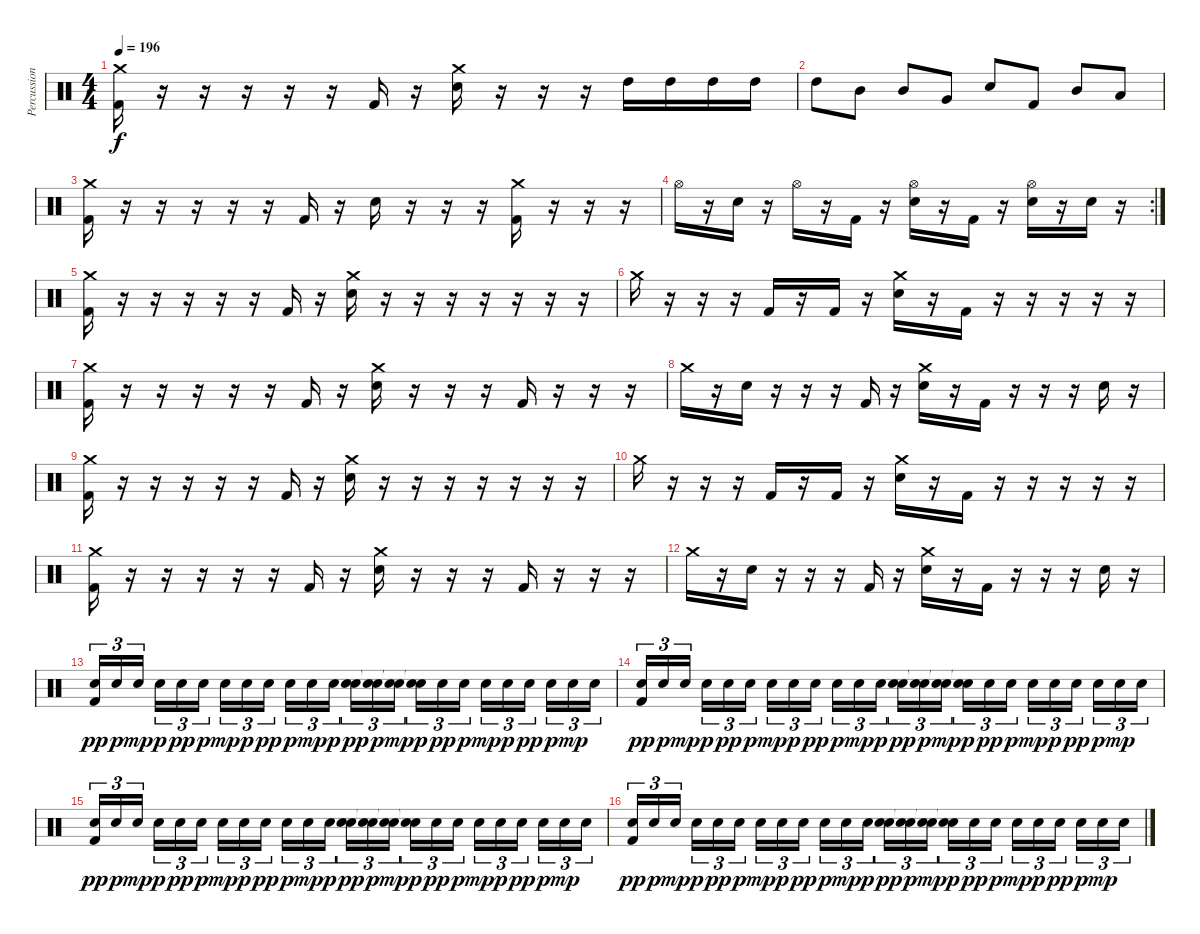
\track ("Percussion" "Percussion") {instrument percussion}
\staff {score}
\articulation defaults
\ts (4 4)
\tempo 196
\clef neutral
\ks c
("Crash medium (hit)" "Kick (hit) 2").16{dy f} r.16 r.16 r.16 r.16 r.16 "Kick (hit) 2".16 r.16 ("Crash medium (hit)" "Electric Snare (hit)").16 r.16 r.16 r.16 "High Tom (hit)".16 "High Tom (hit)".16 "High Tom (hit)".16 "High Tom (hit)".16 |
"High Tom (hit)".8 "Mid Tom (hit)".8 "Mid Tom (hit)".8 "Very Low Tom (hit)".8 "Electric Snare (hit)".8 "Kick (hit) 2".8 "Mid Tom (hit)".8 "Low Tom (hit)".8 |
("Crash medium (hit)" "Kick (hit) 2").16 r.16 r.16 r.16 r.16 r.16 "Kick (hit) 2".16 r.16 "Electric Snare (hit)".16 r.16 r.16 r.16 ("Crash medium (hit)" "Kick (hit) 2").16 r.16 r.16 r.16 |
\rc 2 "Hi-Hat (open)".16
r.16 "Electric Snare (hit)".16 r.16 "Hi-Hat (open)".16 r.16 "Kick (hit) 2".16 r.16 ("Hi-Hat (open)" "Electric Snare (hit)").16 r.16 "Kick (hit) 2".16 r.16 ("Hi-Hat (open)" "Electric Snare (hit)").16 r.16 "Electric Snare (hit)".16 r.16 |
("Crash medium (hit)" "Kick (hit) 2").16 r.16 r.16 r.16 r.16 r.16 "Kick (hit) 2".16 r.16 ("Crash medium (hit)" "Electric Snare (hit)").16 r.16 r.16 r.16 r.16 r.16 r.16 r.16 |
"Crash medium (hit)".16 r.16 r.16 r.16 "Kick (hit) 2".16 r.16 "Kick (hit) 2".16 r.16 ("Crash medium (hit)" "Electric Snare (hit)").16 r.16 "Kick (hit) 2".16 r.16 r.16 r.16 r.16 r.16 |
("Crash medium (hit)" "Kick (hit) 2").16 r.16 r.16 r.16 r.16 r.16 "Kick (hit) 2".16 r.16 ("Crash medium (hit)" "Electric Snare (hit)").16 r.16 r.16 r.16 "Kick (hit) 2".16 r.16 r.16 r.16 |
"Crash medium (hit)".16 r.16 "Electric Snare (hit)".16 r.16 r.16 r.16 "Kick (hit) 2".16 r.16 ("Crash medium (hit)" "Electric Snare (hit)").16 r.16 "Kick (hit) 2".16 r.16 r.16 r.16 "Electric Snare (hit)".16 r.16 |
("Crash medium (hit)" "Kick (hit) 2").16 r.16 r.16 r.16 r.16 r.16 "Kick (hit) 2".16 r.16 ("Crash medium (hit)" "Electric Snare (hit)").16 r.16 r.16 r.16 r.16 r.16 r.16 r.16 |
"Crash medium (hit)".16 r.16 r.16 r.16 "Kick (hit) 2".16 r.16 "Kick (hit) 2".16 r.16 ("Crash medium (hit)" "Electric Snare (hit)").16 r.16 "Kick (hit) 2".16 r.16 r.16 r.16 r.16 r.16 |
("Crash medium (hit)" "Kick (hit) 2").16 r.16 r.16 r.16 r.16 r.16 "Kick (hit) 2".16 r.16 ("Crash medium (hit)" "Electric Snare (hit)").16 r.16 r.16 r.16 "Kick (hit) 2".16 r.16 r.16 r.16 |
"Crash medium (hit)".16 r.16 "Electric Snare (hit)".16 r.16 r.16 r.16 "Kick (hit) 2".16 r.16 ("Crash medium (hit)" "Electric Snare (hit)").16 r.16 "Kick (hit) 2".16 r.16 r.16 r.16 "Electric Snare (hit)".16 r.16 |
("Electric Snare (hit)" "Kick (hit) 2").16{tu (3 2) dy pp} "Electric Snare (hit)".16{tu (3 2) dy p} "Electric Snare (hit)".16{tu (3 2) dy mp} "Electric Snare (hit)".16{tu (3 2) dy p} "Electric Snare (hit)".16{tu (3 2) dy pp} "Electric Snare (hit)".16{tu (3 2) dy p} "Electric Snare (hit)".16{tu (3 2) dy mp} "Electric Snare (hit)".16{tu (3 2) dy p} "Electric Snare (hit)".16{tu (3 2) dy pp} "Electric Snare (hit)".16{tu (3 2) dy p} "Electric Snare (hit)".16{tu (3 2) dy mp} "Electric Snare (hit)".16{tu (3 2) dy p} ("Electric Snare (hit)" "Snare (hit) 2").16{tu (3 2) dy pp} ("Electric Snare (hit)" "Snare (hit)"{t}).16{tu (3 2) dy p} ("Electric Snare (hit)" "Snare (hit)"{t}).16{tu (3 2) dy mp} ("Electric Snare (hit)" "Snare (hit)"{t}).16{tu (3 2) dy p} "Electric Snare (hit)".16{tu (3 2) dy pp} "Electric Snare (hit)".16{tu (3 2) dy p} "Electric Snare (hit)".16{tu (3 2) dy mp} "Electric Snare (hit)".16{tu (3 2) dy p} "Electric Snare (hit)".16{tu (3 2) dy pp} "Electric Snare (hit)".16{tu (3 2) dy p} "Electric Snare (hit)".16{tu (3 2) dy mp} "Electric Snare (hit)".16{tu (3 2)} |
("Electric Snare (hit)" "Kick (hit) 2").16{tu (3 2) dy pp} "Electric Snare (hit)".16{tu (3 2) dy p} "Electric Snare (hit)".16{tu (3 2) dy mp} "Electric Snare (hit)".16{tu (3 2) dy p} "Electric Snare (hit)".16{tu (3 2) dy pp} "Electric Snare (hit)".16{tu (3 2) dy p} "Electric Snare (hit)".16{tu (3 2) dy mp} "Electric Snare (hit)".16{tu (3 2) dy p} "Electric Snare (hit)".16{tu (3 2) dy pp} "Electric Snare (hit)".16{tu (3 2) dy p} "Electric Snare (hit)".16{tu (3 2) dy mp} "Electric Snare (hit)".16{tu (3 2) dy p} ("Electric Snare (hit)" "Snare (hit) 2").16{tu (3 2) dy pp} ("Electric Snare (hit)" "Snare (hit)"{t}).16{tu (3 2) dy p} ("Electric Snare (hit)" "Snare (hit)"{t}).16{tu (3 2) dy mp} ("Electric Snare (hit)" "Snare (hit)"{t}).16{tu (3 2) dy p} "Electric Snare (hit)".16{tu (3 2) dy pp} "Electric Snare (hit)".16{tu (3 2) dy p} "Electric Snare (hit)".16{tu (3 2) dy mp} "Electric Snare (hit)".16{tu (3 2) dy p} "Electric Snare (hit)".16{tu (3 2) dy pp} "Electric Snare (hit)".16{tu (3 2) dy p} "Electric Snare (hit)".16{tu (3 2) dy mp} "Electric Snare (hit)".16{tu (3 2)} |
("Electric Snare (hit)" "Kick (hit) 2").16{tu (3 2) dy pp} "Electric Snare (hit)".16{tu (3 2) dy p} "Electric Snare (hit)".16{tu (3 2) dy mp} "Electric Snare (hit)".16{tu (3 2) dy p} "Electric Snare (hit)".16{tu (3 2) dy pp} "Electric Snare (hit)".16{tu (3 2) dy p} "Electric Snare (hit)".16{tu (3 2) dy mp} "Electric Snare (hit)".16{tu (3 2) dy p} "Electric Snare (hit)".16{tu (3 2) dy pp} "Electric Snare (hit)".16{tu (3 2) dy p} "Electric Snare (hit)".16{tu (3 2) dy mp} "Electric Snare (hit)".16{tu (3 2) dy p} ("Electric Snare (hit)" "Snare (hit) 2").16{tu (3 2) dy pp} ("Electric Snare (hit)" "Snare (hit)"{t}).16{tu (3 2) dy p} ("Electric Snare (hit)" "Snare (hit)"{t}).16{tu (3 2) dy mp} ("Electric Snare (hit)" "Snare (hit)"{t}).16{tu (3 2) dy p} "Electric Snare (hit)".16{tu (3 2) dy pp} "Electric Snare (hit)".16{tu (3 2) dy p} "Electric Snare (hit)".16{tu (3 2) dy mp} "Electric Snare (hit)".16{tu (3 2) dy p} "Electric Snare (hit)".16{tu (3 2) dy pp} "Electric Snare (hit)".16{tu (3 2) dy p} "Electric Snare (hit)".16{tu (3 2) dy mp} "Electric Snare (hit)".16{tu (3 2)} |
("Electric Snare (hit)" "Kick (hit) 2").16{tu (3 2) dy pp} "Electric Snare (hit)".16{tu (3 2) dy p} "Electric Snare (hit)".16{tu (3 2) dy mp} "Electric Snare (hit)".16{tu (3 2) dy p} "Electric Snare (hit)".16{tu (3 2) dy pp} "Electric Snare (hit)".16{tu (3 2) dy p} "Electric Snare (hit)".16{tu (3 2) dy mp} "Electric Snare (hit)".16{tu (3 2) dy p} "Electric Snare (hit)".16{tu (3 2) dy pp} "Electric Snare (hit)".16{tu (3 2) dy p} "Electric Snare (hit)".16{tu (3 2) dy mp} "Electric Snare (hit)".16{tu (3 2) dy p} ("Electric Snare (hit)" "Snare (hit) 2").16{tu (3 2) dy pp} ("Electric Snare (hit)" "Snare (hit)"{t}).16{tu (3 2) dy p} ("Electric Snare (hit)" "Snare (hit)"{t}).16{tu (3 2) dy mp} ("Electric Snare (hit)" "Snare (hit)"{t}).16{tu (3 2) dy p} "Electric Snare (hit)".16{tu (3 2) dy pp} "Electric Snare (hit)".16{tu (3 2) dy p} "Electric Snare (hit)".16{tu (3 2) dy mp} "Electric Snare (hit)".16{tu (3 2) dy p} "Electric Snare (hit)".16{tu (3 2) dy pp} "Electric Snare (hit)".16{tu (3 2) dy p} "Electric Snare (hit)".16{tu (3 2) dy mp} "Electric Snare (hit)".16{tu (3 2)}
